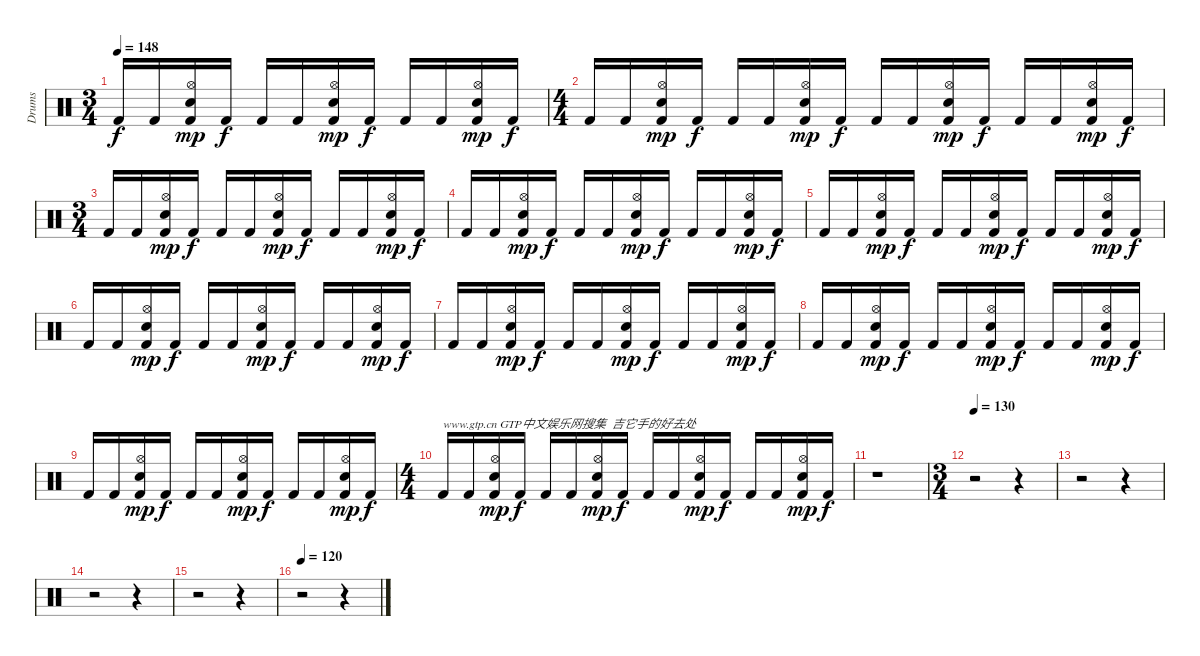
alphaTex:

\track ("Drums" "Drums") {instrument percussion}
\staff
\articulation defaults
\ts (3 4)
\tempo 148
\clef neutral
\ks c "Kick (hit) 2".16{dy f} "Kick (hit) 2".16
("Hi-Hat (open)" "Kick (hit) 2" "Electric Snare (hit)").16{dy mp} "Kick (hit) 2".16{dy f} "Kick (hit) 2".16 "Kick (hit) 2".16 ("Hi-Hat (open)" "Kick (hit) 2" "Electric Snare (hit)").16{dy mp} "Kick (hit) 2".16{dy f} "Kick (hit) 2".16 "Kick (hit) 2".16 ("Hi-Hat (open)" "Kick (hit) 2" "Electric Snare (hit)").16{dy mp} "Kick (hit) 2".16{dy f} |
\ts (4 4)
"Kick (hit) 2".16 "Kick (hit) 2".16 ("Hi-Hat (open)" "Kick (hit) 2" "Electric Snare (hit)").16{dy mp} "Kick (hit) 2".16{dy f} "Kick (hit) 2".16 "Kick (hit) 2".16 ("Hi-Hat (open)" "Kick (hit) 2" "Electric Snare (hit)").16{dy mp} "Kick (hit) 2".16{dy f} "Kick (hit) 2".16 "Kick (hit) 2".16 ("Hi-Hat (open)" "Kick (hit) 2" "Electric Snare (hit)").16{dy mp} "Kick (hit) 2".16{dy f} "Kick (hit) 2".16 "Kick (hit) 2".16 ("Hi-Hat (open)" "Kick (hit) 2" "Electric Snare (hit)").16{dy mp} "Kick (hit) 2".16{dy f} |
\ts (3 4)
"Kick (hit) 2".16 "Kick (hit) 2".16 ("Hi-Hat (open)" "Kick (hit) 2" "Electric Snare (hit)").16{dy mp} "Kick (hit) 2".16{dy f} "Kick (hit) 2".16 "Kick (hit) 2".16 ("Hi-Hat (open)" "Kick (hit) 2" "Electric Snare (hit)").16{dy mp} "Kick (hit) 2".16{dy f} "Kick (hit) 2".16 "Kick (hit) 2".16 ("Hi-Hat (open)" "Kick (hit) 2" "Electric Snare (hit)").16{dy mp} "Kick (hit) 2".16{dy f} |
"Kick (hit) 2".16 "Kick (hit) 2".16 ("Hi-Hat (open)" "Kick (hit) 2" "Electric Snare (hit)").16{dy mp} "Kick (hit) 2".16{dy f} "Kick (hit) 2".16 "Kick (hit) 2".16 ("Hi-Hat (open)" "Kick (hit) 2" "Electric Snare (hit)").16{dy mp} "Kick (hit) 2".16{dy f} "Kick (hit) 2".16 "Kick (hit) 2".16 ("Hi-Hat (open)" "Kick (hit) 2" "Electric Snare (hit)").16{dy mp} "Kick (hit) 2".16{dy f} |
"Kick (hit) 2".16 "Kick (hit) 2".16 ("Hi-Hat (open)" "Kick (hit) 2" "Electric Snare (hit)").16{dy mp} "Kick (hit) 2".16{dy f} "Kick (hit) 2".16 "Kick (hit) 2".16 ("Hi-Hat (open)" "Kick (hit) 2" "Electric Snare (hit)").16{dy mp} "Kick (hit) 2".16{dy f} "Kick (hit) 2".16 "Kick (hit) 2".16 ("Hi-Hat (open)" "Kick (hit) 2" "Electric Snare (hit)").16{dy mp} "Kick (hit) 2".16{dy f} |
"Kick (hit) 2".16 "Kick (hit) 2".16 ("Hi-Hat (open)" "Kick (hit) 2" "Electric Snare (hit)").16{dy mp} "Kick (hit) 2".16{dy f} "Kick (hit) 2".16 "Kick (hit) 2".16 ("Hi-Hat (open)" "Kick (hit) 2" "Electric Snare (hit)").16{dy mp} "Kick (hit) 2".16{dy f} "Kick (hit) 2".16 "Kick (hit) 2".16 ("Hi-Hat (open)" "Kick (hit) 2" "Electric Snare (hit)").16{dy mp} "Kick (hit) 2".16{dy f} |
"Kick (hit) 2".16 "Kick (hit) 2".16 ("Hi-Hat (open)" "Kick (hit) 2" "Electric Snare (hit)").16{dy mp} "Kick (hit) 2".16{dy f} "Kick (hit) 2".16 "Kick (hit) 2".16 ("Hi-Hat (open)" "Kick (hit) 2" "Electric Snare (hit)").16{dy mp} "Kick (hit) 2".16{dy f} "Kick (hit) 2".16 "Kick (hit) 2".16 ("Hi-Hat (open)" "Kick (hit) 2" "Electric Snare (hit)").16{dy mp} "Kick (hit) 2".16{dy f} |
"Kick (hit) 2".16 "Kick (hit) 2".16 ("Hi-Hat (open)" "Kick (hit) 2" "Electric Snare (hit)").16{dy mp} "Kick (hit) 2".16{dy f} "Kick (hit) 2".16 "Kick (hit) 2".16 ("Hi-Hat (open)" "Kick (hit) 2" "Electric Snare (hit)").16{dy mp} "Kick (hit) 2".16{dy f} "Kick (hit) 2".16 "Kick (hit) 2".16 ("Hi-Hat (open)" "Kick (hit) 2" "Electric Snare (hit)").16{dy mp} "Kick (hit) 2".16{dy f} |
"Kick (hit) 2".16 "Kick (hit) 2".16 ("Hi-Hat (open)" "Kick (hit) 2" "Electric Snare (hit)").16{dy mp} "Kick (hit) 2".16{dy f} "Kick (hit) 2".16 "Kick (hit) 2".16 ("Hi-Hat (open)" "Kick (hit) 2" "Electric Snare (hit)").16{dy mp} "Kick (hit) 2".16{dy f} "Kick (hit) 2".16 "Kick (hit) 2".16 ("Hi-Hat (open)" "Kick (hit) 2" "Electric Snare (hit)").16{dy mp} "Kick (hit) 2".16{dy f} |
\ts (4 4)
"Kick (hit) 2".16{txt "www.gtp.cn GTP中文娱乐网搜集  吉它手的好去处"} "Kick (hit) 2".16 ("Hi-Hat (open)" "Kick (hit) 2" "Electric Snare (hit)").16{dy mp} "Kick (hit) 2".16{dy f} "Kick (hit) 2".16 "Kick (hit) 2".16 ("Hi-Hat (open)" "Kick (hit) 2" "Electric Snare (hit)").16{dy mp} "Kick (hit) 2".16{dy f} "Kick (hit) 2".16 "Kick (hit) 2".16 ("Hi-Hat (open)" "Kick (hit) 2" "Electric Snare (hit)").16{dy mp} "Kick (hit) 2".16{dy f} "Kick (hit) 2".16 "Kick (hit) 2".16 ("Hi-Hat (open)" "Kick (hit) 2" "Electric Snare (hit)").16{dy mp} "Kick (hit) 2".16{dy f} |
r.1 |
\ts (3 4)
\tempo 130
r.2 r.4 |
r.2 r.4 |
r.2 r.4 |
r.2 r.4 |
\tempo 120
r.2 r.4
